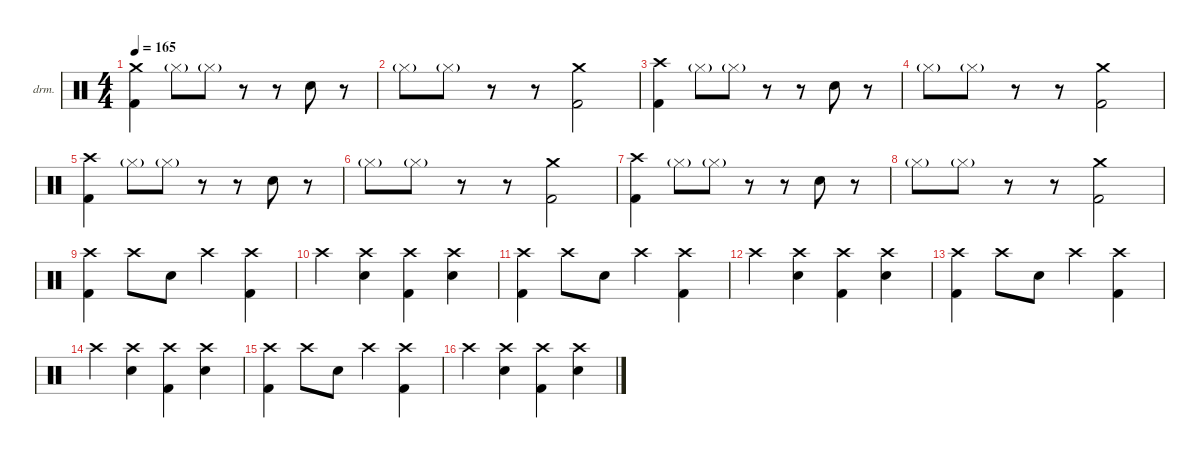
\defaultSystemsLayout 4
\hideDynamics
\bracketExtendMode nobrackets
\firstSystemTrackNameOrientation horizontal
\otherSystemsTrackNameOrientation horizontal
\track ("Marty Chapman (Drums)" "drm.") {instrument percussion}
\staff {score}
\articulation defaults
\ts (4 4)
\tempo 165
\clef neutral
\ks c
("Crash medium (hit)" "Kick (hit) 2").4{dy f beam Down} "Hi-Hat (closed)"{g}.8{beam Down} "Hi-Hat (closed)"{g}.8{beam Down} r.8{beam Down} r.8{beam Down} "Snare (hit) 2".8{beam Down} r.8{beam Down} |
"Hi-Hat (closed)"{g}.8{beam Down} "Hi-Hat (closed)"{g}.8{beam Down} r.8{beam Down} r.8{beam Down} ("Crash medium (hit)" "Kick (hit) 2").2{beam Down} |
("Crash high (hit)" "Kick (hit) 2").4{beam Down} "Hi-Hat (closed)"{g}.8{beam Down} "Hi-Hat (closed)"{g}.8{beam Down} r.8{beam Down} r.8{beam Down} "Snare (hit) 2".8{beam Down} r.8{beam Down} |
"Hi-Hat (closed)"{g}.8{beam Down} "Hi-Hat (closed)"{g}.8{beam Down} r.8{beam Down} r.8{beam Down} ("Crash medium (hit)" "Kick (hit) 2").2{beam Down} |
("Crash high (hit)" "Kick (hit) 2").4{beam Down} "Hi-Hat (closed)"{g}.8{beam Down} "Hi-Hat (closed)"{g}.8{beam Down} r.8{beam Down} r.8{beam Down} "Snare (hit) 2".8{beam Down} r.8{beam Down} |
"Hi-Hat (closed)"{g}.8{beam Down} "Hi-Hat (closed)"{g}.8{beam Down} r.8{beam Down} r.8{beam Down} ("Crash medium (hit)" "Kick (hit) 2").2{beam Down} |
("Crash high (hit)" "Kick (hit) 2").4{beam Down} "Hi-Hat (closed)"{g}.8{beam Down} "Hi-Hat (closed)"{g}.8{beam Down} r.8{beam Down} r.8{beam Down} "Snare (hit) 2".8{beam Down} r.8{beam Down} |
"Hi-Hat (closed)"{g}.8{beam Down} "Hi-Hat (closed)"{g}.8{beam Down} r.8{beam Down} r.8{beam Down} ("Crash medium (hit)" "Kick (hit) 2").2{beam Down} |
("Crash high (hit)" "Kick (hit) 2").4{beam Down} "Crash high (hit)".8{beam Down} "Snare (hit) 2".8{beam Down} "Crash high (hit)".4{beam Down} ("Crash high (hit)" "Kick (hit) 2").4{beam Down} |
"Crash high (hit)".4{beam Down} ("Crash high (hit)" "Snare (hit) 2").4{beam Down} ("Crash high (hit)" "Kick (hit) 2").4{beam Down} ("Crash high (hit)" "Snare (hit) 2").4{beam Down} |
("Crash high (hit)" "Kick (hit) 2").4{beam Down} "Crash high (hit)".8{beam Down} "Snare (hit) 2".8{beam Down} "Crash high (hit)".4{beam Down} ("Crash high (hit)" "Kick (hit) 2").4{beam Down} |
"Crash high (hit)".4{beam Down} ("Crash high (hit)" "Snare (hit) 2").4{beam Down} ("Crash high (hit)" "Kick (hit) 2").4{beam Down} ("Crash high (hit)" "Snare (hit) 2").4{beam Down} |
("Crash high (hit)" "Kick (hit) 2").4{beam Down} "Crash high (hit)".8{beam Down} "Snare (hit) 2".8{beam Down} "Crash high (hit)".4{beam Down} ("Crash high (hit)" "Kick (hit) 2").4{beam Down} |
"Crash high (hit)".4{beam Down} ("Crash high (hit)" "Snare (hit) 2").4{beam Down} ("Crash high (hit)" "Kick (hit) 2").4{beam Down} ("Crash high (hit)" "Snare (hit) 2").4{beam Down} |
("Crash high (hit)" "Kick (hit) 2").4{beam Down} "Crash high (hit)".8{beam Down} "Snare (hit) 2".8{beam Down} "Crash high (hit)".4{beam Down} ("Crash high (hit)" "Kick (hit) 2").4{beam Down} |
"Crash high (hit)".4{beam Down} ("Crash high (hit)" "Snare (hit) 2").4{beam Down} ("Crash high (hit)" "Kick (hit) 2").4{beam Down} ("Crash high (hit)" "Snare (hit) 2").4{beam Down}
